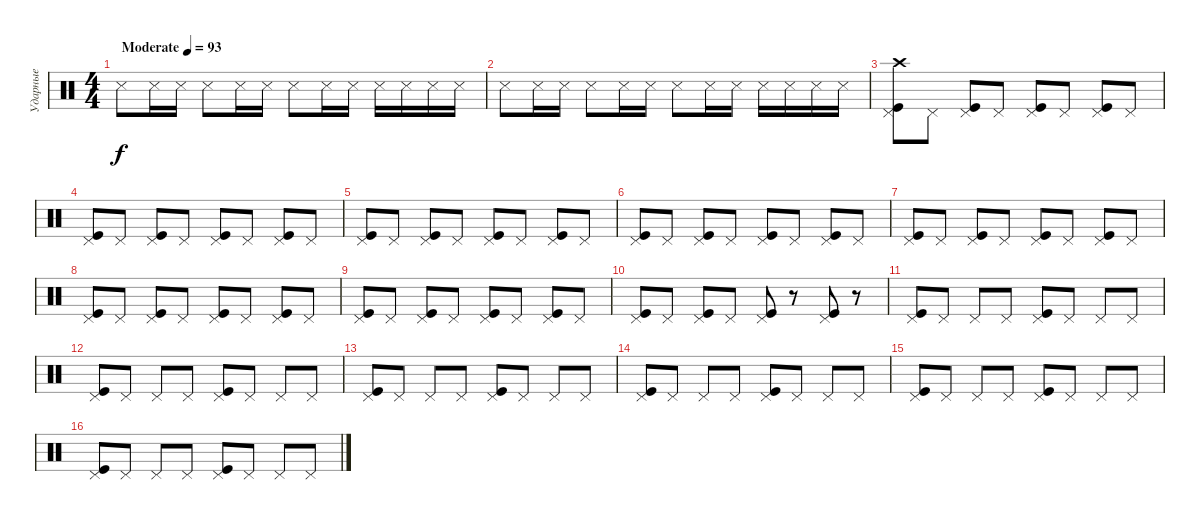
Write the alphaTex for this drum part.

\track ("Ударные" "Ударные") {instrument percussion}
\staff {score}
\articulation defaults
\ts (4 4)
\tempo (93 "Moderate")
\clef neutral
\ks c "Snare (side stick) 3".8{dy f} "Snare (side stick) 3".16 "Snare (side stick) 3".16 "Snare (side stick) 3".8 "Snare (side stick) 3".16 "Snare (side stick) 3".16 "Snare (side stick) 3".8 "Snare (side stick) 3".16 "Snare (side stick) 3".16 "Snare (side stick) 3".16 "Snare (side stick) 3".16 "Snare (side stick) 3".16 "Snare (side stick) 3".16
|
"Snare (side stick) 3".8 "Snare (side stick) 3".16 "Snare (side stick) 3".16 "Snare (side stick) 3".8 "Snare (side stick) 3".16 "Snare (side stick) 3".16 "Snare (side stick) 3".8 "Snare (side stick) 3".16 "Snare (side stick) 3".16 "Snare (side stick) 3".16 "Snare (side stick) 3".16 "Snare (side stick) 3".16 "Snare (side stick) 3".16 |
("Kick (hit)" "Pedal Hi-Hat (hit)" "Crash high (hit)").8 "Pedal Hi-Hat (hit)".8 ("Kick (hit)" "Pedal Hi-Hat (hit)").8 "Pedal Hi-Hat (hit)".8 ("Kick (hit)" "Pedal Hi-Hat (hit)").8 "Pedal Hi-Hat (hit)".8 ("Kick (hit)" "Pedal Hi-Hat (hit)").8 "Pedal Hi-Hat (hit)".8 |
("Kick (hit)" "Pedal Hi-Hat (hit)").8 "Pedal Hi-Hat (hit)".8 ("Kick (hit)" "Pedal Hi-Hat (hit)").8 "Pedal Hi-Hat (hit)".8 ("Kick (hit)" "Pedal Hi-Hat (hit)").8 "Pedal Hi-Hat (hit)".8 ("Kick (hit)" "Pedal Hi-Hat (hit)").8 "Pedal Hi-Hat (hit)".8 |
("Kick (hit)" "Pedal Hi-Hat (hit)").8 "Pedal Hi-Hat (hit)".8 ("Kick (hit)" "Pedal Hi-Hat (hit)").8 "Pedal Hi-Hat (hit)".8 ("Kick (hit)" "Pedal Hi-Hat (hit)").8 "Pedal Hi-Hat (hit)".8 ("Kick (hit)" "Pedal Hi-Hat (hit)").8 "Pedal Hi-Hat (hit)".8 |
("Kick (hit)" "Pedal Hi-Hat (hit)").8 "Pedal Hi-Hat (hit)".8 ("Kick (hit)" "Pedal Hi-Hat (hit)").8 "Pedal Hi-Hat (hit)".8 ("Kick (hit)" "Pedal Hi-Hat (hit)").8 "Pedal Hi-Hat (hit)".8 ("Kick (hit)" "Pedal Hi-Hat (hit)").8 "Pedal Hi-Hat (hit)".8 |
("Kick (hit)" "Pedal Hi-Hat (hit)").8 "Pedal Hi-Hat (hit)".8 ("Kick (hit)" "Pedal Hi-Hat (hit)").8 "Pedal Hi-Hat (hit)".8 ("Kick (hit)" "Pedal Hi-Hat (hit)").8 "Pedal Hi-Hat (hit)".8 ("Kick (hit)" "Pedal Hi-Hat (hit)").8 "Pedal Hi-Hat (hit)".8 |
("Kick (hit)" "Pedal Hi-Hat (hit)").8 "Pedal Hi-Hat (hit)".8 ("Kick (hit)" "Pedal Hi-Hat (hit)").8 "Pedal Hi-Hat (hit)".8 ("Kick (hit)" "Pedal Hi-Hat (hit)").8 "Pedal Hi-Hat (hit)".8 ("Kick (hit)" "Pedal Hi-Hat (hit)").8 "Pedal Hi-Hat (hit)".8 |
("Kick (hit)" "Pedal Hi-Hat (hit)").8 "Pedal Hi-Hat (hit)".8 ("Kick (hit)" "Pedal Hi-Hat (hit)").8 "Pedal Hi-Hat (hit)".8 ("Kick (hit)" "Pedal Hi-Hat (hit)").8 "Pedal Hi-Hat (hit)".8 ("Kick (hit)" "Pedal Hi-Hat (hit)").8 "Pedal Hi-Hat (hit)".8 |
("Kick (hit)" "Pedal Hi-Hat (hit)").8 "Pedal Hi-Hat (hit)".8 ("Kick (hit)" "Pedal Hi-Hat (hit)").8 "Pedal Hi-Hat (hit)".8 ("Kick (hit)" "Pedal Hi-Hat (hit)").8 r.8 ("Kick (hit)" "Pedal Hi-Hat (hit)").8 r.8 |
("Kick (hit)" "Pedal Hi-Hat (hit)").8 "Pedal Hi-Hat (hit)".8 "Pedal Hi-Hat (hit)".8 "Pedal Hi-Hat (hit)".8 ("Kick (hit)" "Pedal Hi-Hat (hit)").8 "Pedal Hi-Hat (hit)".8 "Pedal Hi-Hat (hit)".8 "Pedal Hi-Hat (hit)".8 |
("Kick (hit)" "Pedal Hi-Hat (hit)").8 "Pedal Hi-Hat (hit)".8 "Pedal Hi-Hat (hit)".8 "Pedal Hi-Hat (hit)".8 ("Kick (hit)" "Pedal Hi-Hat (hit)").8 "Pedal Hi-Hat (hit)".8 "Pedal Hi-Hat (hit)".8 "Pedal Hi-Hat (hit)".8 |
("Kick (hit)" "Pedal Hi-Hat (hit)").8 "Pedal Hi-Hat (hit)".8 "Pedal Hi-Hat (hit)".8 "Pedal Hi-Hat (hit)".8 ("Kick (hit)" "Pedal Hi-Hat (hit)").8 "Pedal Hi-Hat (hit)".8 "Pedal Hi-Hat (hit)".8 "Pedal Hi-Hat (hit)".8 |
("Kick (hit)" "Pedal Hi-Hat (hit)").8 "Pedal Hi-Hat (hit)".8 "Pedal Hi-Hat (hit)".8 "Pedal Hi-Hat (hit)".8 ("Kick (hit)" "Pedal Hi-Hat (hit)").8 "Pedal Hi-Hat (hit)".8 "Pedal Hi-Hat (hit)".8 "Pedal Hi-Hat (hit)".8 |
("Kick (hit)" "Pedal Hi-Hat (hit)").8 "Pedal Hi-Hat (hit)".8 "Pedal Hi-Hat (hit)".8 "Pedal Hi-Hat (hit)".8 ("Kick (hit)" "Pedal Hi-Hat (hit)").8 "Pedal Hi-Hat (hit)".8 "Pedal Hi-Hat (hit)".8 "Pedal Hi-Hat (hit)".8 |
("Kick (hit)" "Pedal Hi-Hat (hit)").8 "Pedal Hi-Hat (hit)".8 "Pedal Hi-Hat (hit)".8 "Pedal Hi-Hat (hit)".8 ("Kick (hit)" "Pedal Hi-Hat (hit)").8 "Pedal Hi-Hat (hit)".8 "Pedal Hi-Hat (hit)".8 "Pedal Hi-Hat (hit)".8
